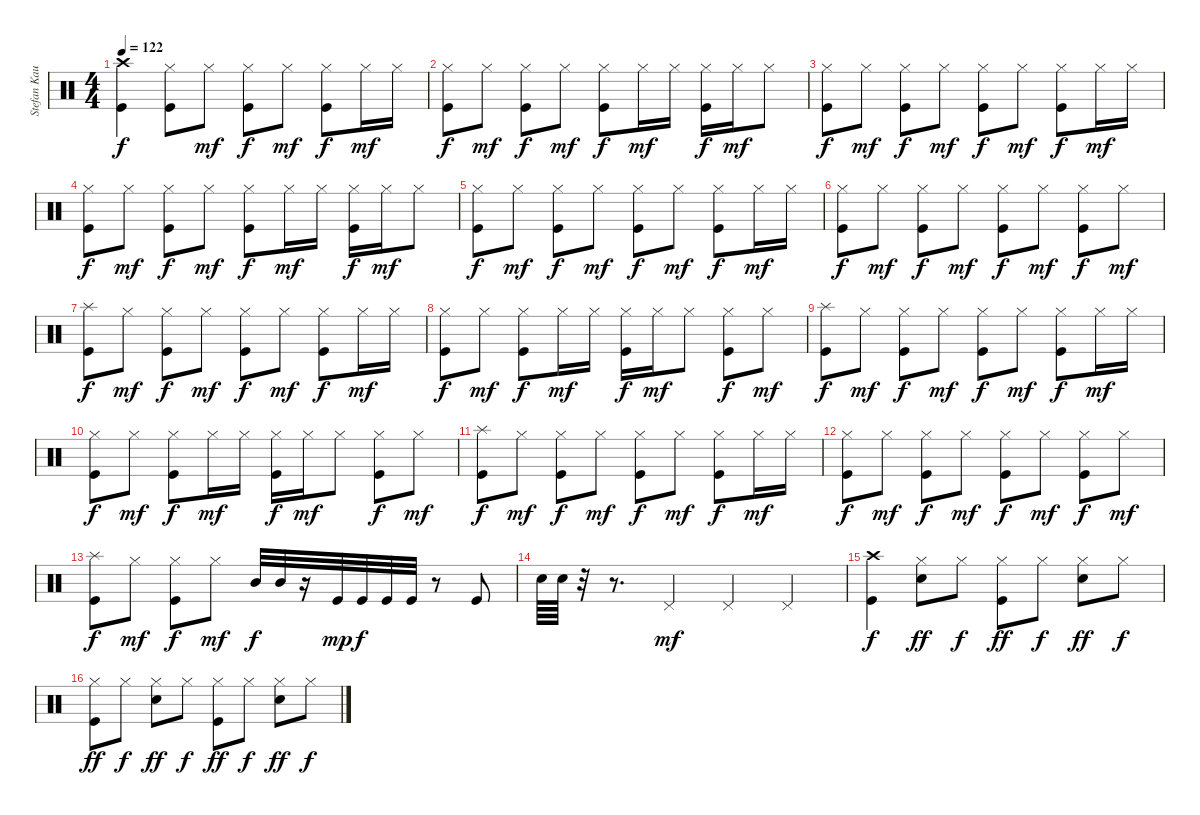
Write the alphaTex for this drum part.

\track ("Stefan Kaufmann" "Stefan Kau") {instrument percussion}
\staff {score}
\articulation defaults
\ts (4 4)
\tempo 122
\clef neutral
\ks c
("Crash high (hit)" "Kick (hit)").4{dy f} ("Hi-Hat (closed)" "Kick (hit)").8 "Hi-Hat (closed)".8{dy mf} ("Hi-Hat (closed)" "Kick (hit)").8{dy f} "Hi-Hat (closed)".8{dy mf} ("Hi-Hat (closed)" "Kick (hit)").8{dy f} "Hi-Hat (closed)".16{dy mf} "Hi-Hat (closed)".16 |
("Hi-Hat (closed)" "Kick (hit)").8{dy f} "Hi-Hat (closed)".8{dy mf} ("Hi-Hat (closed)" "Kick (hit)").8{dy f} "Hi-Hat (closed)".8{dy mf} ("Hi-Hat (closed)" "Kick (hit)").8{dy f} "Hi-Hat (closed)".16{dy mf} "Hi-Hat (closed)".16 ("Hi-Hat (closed)" "Kick (hit)").16{dy f} "Hi-Hat (closed)".16{dy mf} "Hi-Hat (closed)".8 |
("Hi-Hat (closed)" "Kick (hit)").8{dy f} "Hi-Hat (closed)".8{dy mf} ("Hi-Hat (closed)" "Kick (hit)").8{dy f} "Hi-Hat (closed)".8{dy mf} ("Hi-Hat (closed)" "Kick (hit)").8{dy f} "Hi-Hat (closed)".8{dy mf} ("Hi-Hat (closed)" "Kick (hit)").8{dy f} "Hi-Hat (closed)".16{dy mf} "Hi-Hat (closed)".16 |
("Hi-Hat (closed)" "Kick (hit)").8{dy f} "Hi-Hat (closed)".8{dy mf} ("Hi-Hat (closed)" "Kick (hit)").8{dy f} "Hi-Hat (closed)".8{dy mf} ("Hi-Hat (closed)" "Kick (hit)").8{dy f} "Hi-Hat (closed)".16{dy mf} "Hi-Hat (closed)".16 ("Hi-Hat (closed)" "Kick (hit)").16{dy f} "Hi-Hat (closed)".16{dy mf} "Hi-Hat (closed)".8 |
("Hi-Hat (closed)" "Kick (hit)").8{dy f} "Hi-Hat (closed)".8{dy mf} ("Hi-Hat (closed)" "Kick (hit)").8{dy f} "Hi-Hat (closed)".8{dy mf} ("Hi-Hat (closed)" "Kick (hit)").8{dy f} "Hi-Hat (closed)".8{dy mf} ("Hi-Hat (closed)" "Kick (hit)").8{dy f} "Hi-Hat (closed)".16{dy mf} "Hi-Hat (closed)".16 |
("Hi-Hat (closed)" "Kick (hit)").8{dy f} "Hi-Hat (closed)".8{dy mf} ("Hi-Hat (closed)" "Kick (hit)").8{dy f} "Hi-Hat (closed)".8{dy mf} ("Hi-Hat (closed)" "Kick (hit)").8{dy f} "Hi-Hat (closed)".8{dy mf} ("Hi-Hat (closed)" "Kick (hit)").8{dy f} "Hi-Hat (closed)".8{dy mf} |
("Splash (hit)" "Kick (hit)").8{dy f} "Hi-Hat (closed)".8{dy mf} ("Hi-Hat (closed)" "Kick (hit)").8{dy f} "Hi-Hat (closed)".8{dy mf} ("Hi-Hat (closed)" "Kick (hit)").8{dy f} "Hi-Hat (closed)".8{dy mf} ("Hi-Hat (closed)" "Kick (hit)").8{dy f} "Hi-Hat (closed)".16{dy mf} "Hi-Hat (closed)".16 |
("Hi-Hat (closed)" "Kick (hit)").8{dy f} "Hi-Hat (closed)".8{dy mf} ("Hi-Hat (closed)" "Kick (hit)").8{dy f} "Hi-Hat (closed)".16{dy mf} "Hi-Hat (closed)".16 ("Hi-Hat (closed)" "Kick (hit)").16{dy f} "Hi-Hat (closed)".16{dy mf} "Hi-Hat (closed)".8 ("Hi-Hat (closed)" "Kick (hit)").8{dy f} "Hi-Hat (closed)".8{dy mf} |
("Splash (hit)" "Kick (hit)").8{dy f} "Hi-Hat (closed)".8{dy mf} ("Hi-Hat (closed)" "Kick (hit)").8{dy f} "Hi-Hat (closed)".8{dy mf} ("Hi-Hat (closed)" "Kick (hit)").8{dy f} "Hi-Hat (closed)".8{dy mf} ("Hi-Hat (closed)" "Kick (hit)").8{dy f} "Hi-Hat (closed)".16{dy mf} "Hi-Hat (closed)".16 |
("Hi-Hat (closed)" "Kick (hit)").8{dy f} "Hi-Hat (closed)".8{dy mf} ("Hi-Hat (closed)" "Kick (hit)").8{dy f} "Hi-Hat (closed)".16{dy mf} "Hi-Hat (closed)".16 ("Hi-Hat (closed)" "Kick (hit)").16{dy f} "Hi-Hat (closed)".16{dy mf} "Hi-Hat (closed)".8 ("Hi-Hat (closed)" "Kick (hit)").8{dy f} "Hi-Hat (closed)".8{dy mf} |
("Splash (hit)" "Kick (hit)").8{dy f} "Hi-Hat (closed)".8{dy mf} ("Hi-Hat (closed)" "Kick (hit)").8{dy f} "Hi-Hat (closed)".8{dy mf} ("Hi-Hat (closed)" "Kick (hit)").8{dy f} "Hi-Hat (closed)".8{dy mf} ("Hi-Hat (closed)" "Kick (hit)").8{dy f} "Hi-Hat (closed)".16{dy mf} "Hi-Hat (closed)".16 |
("Hi-Hat (closed)" "Kick (hit)").8{dy f} "Hi-Hat (closed)".8{dy mf} ("Hi-Hat (closed)" "Kick (hit)").8{dy f} "Hi-Hat (closed)".8{dy mf} ("Hi-Hat (closed)" "Kick (hit)").8{dy f} "Hi-Hat (closed)".8{dy mf} ("Hi-Hat (closed)" "Kick (hit)").8{dy f} "Hi-Hat (closed)".8{dy mf} |
("Splash (hit)" "Kick (hit)").8{dy f} "Hi-Hat (closed)".8{dy mf} ("Hi-Hat (closed)" "Kick (hit)").8{dy f} "Hi-Hat (closed)".8{dy mf} "Mid Tom (hit)".32{dy f} "Mid Tom (hit)".32 r.16 "Kick (hit)".32{dy mp} "Kick (hit)".32{dy f} "Kick (hit)".32 "Kick (hit)".32 r.8 "Kick (hit)".8 |
"Snare (hit) 2".64 "Snare (hit) 2".64 r.32 r.8{d} "Pedal Hi-Hat (hit)".4{dy mf} "Pedal Hi-Hat (hit)".4 "Pedal Hi-Hat (hit)".4 |
("Crash high (hit)" "Kick (hit)").4{dy f} ("Hi-Hat (closed)" "Snare (hit) 2").8{dy ff} "Hi-Hat (closed)".8{dy f} ("Hi-Hat (closed)" "Kick (hit)").8{dy ff} "Hi-Hat (closed)".8{dy f} ("Hi-Hat (closed)" "Snare (hit) 2").8{dy ff} "Hi-Hat (closed)".8{dy f} |
("Hi-Hat (closed)" "Kick (hit)").8{dy ff} "Hi-Hat (closed)".8{dy f} ("Hi-Hat (closed)" "Snare (hit) 2").8{dy ff} "Hi-Hat (closed)".8{dy f} ("Hi-Hat (closed)" "Kick (hit)").8{dy ff} "Hi-Hat (closed)".8{dy f} ("Hi-Hat (closed)" "Snare (hit) 2").8{dy ff} "Hi-Hat (closed)".8{dy f}
